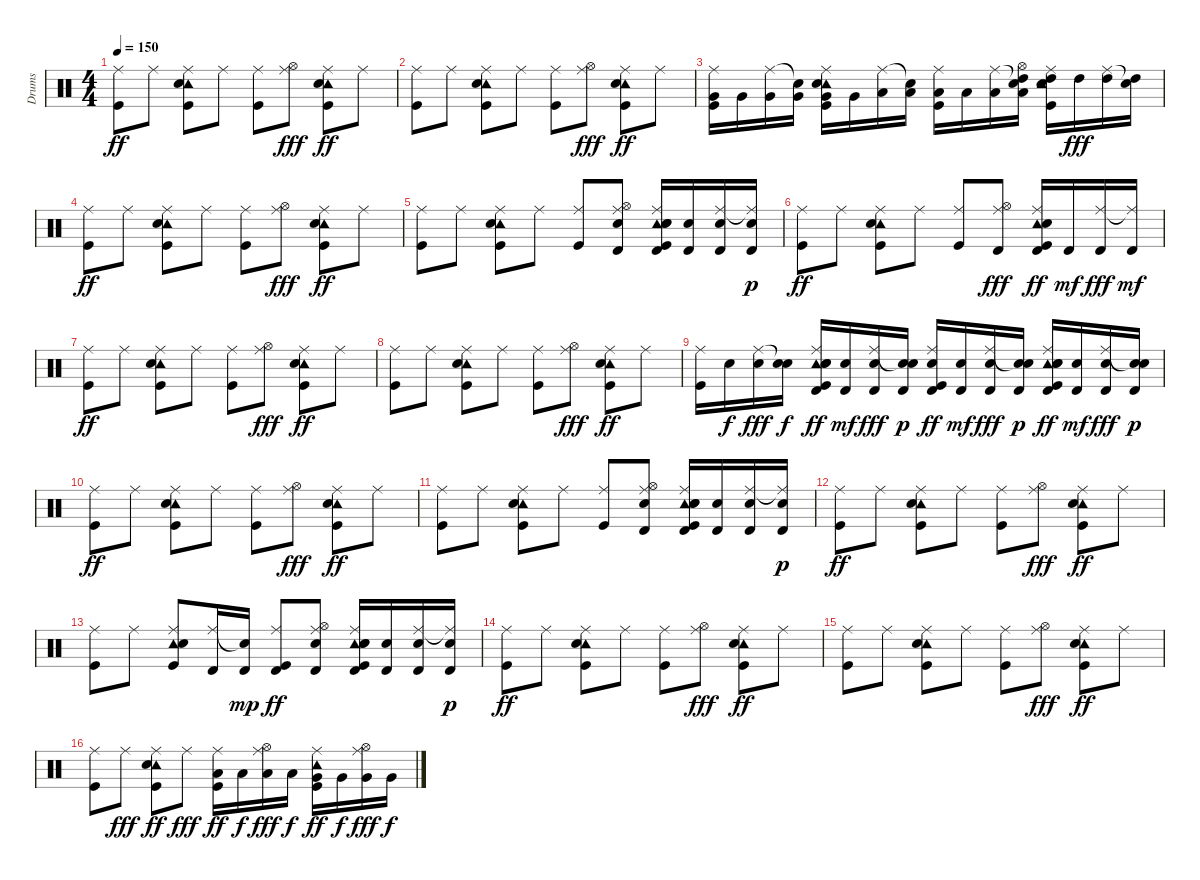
\track ("Drums" "Drums") {instrument percussion}
\staff {score}
\articulation defaults
\ts (4 4)
\tempo 150
\clef neutral
\ks c
("Ride (middle)" "Kick (hit)").8{dy ff} "Ride (middle)".8 ("Ride (middle)" "Tambourine (hit)" "Electric Snare (hit)" "Kick (hit)").8 "Ride (middle)".8 ("Ride (middle)" "Kick (hit)").8 ("Ride (middle)" "Hi-Hat (open)").8{dy fff} ("Ride (middle)" "Tambourine (hit)" "Electric Snare (hit)" "Kick (hit)").8{dy ff} "Ride (middle)".8 |
("Ride (middle)" "Kick (hit)").8 "Ride (middle)".8 ("Ride (middle)" "Tambourine (hit)" "Electric Snare (hit)" "Kick (hit)").8 "Ride (middle)".8 ("Ride (middle)" "Kick (hit)").8 ("Ride (middle)" "Hi-Hat (open)").8{dy fff} ("Ride (middle)" "Tambourine (hit)" "Electric Snare (hit)" "Kick (hit)").8{dy ff} "Ride (middle)".8 |
("Ride (middle)" "Very Low Tom (hit)" "Kick (hit)").16 "Very Low Tom (hit)".16 ("Ride (middle)" "Very Low Tom (hit)").16 ("Snare (hit)"{t} "Very Low Tom (hit)").16 ("Ride (middle)" "Tambourine (hit)" "Electric Snare (hit)" "Very Low Tom (hit)" "Kick (hit)").16 "Very Low Tom (hit)".16 ("Ride (middle)" "Low Floor Tom (hit)").16 ("Snare (hit)"{t} "Low Floor Tom (hit)").16 ("Ride (middle)" "Low Floor Tom (hit)" "Kick (hit)").16 "Low Floor Tom (hit)".16 ("Ride (middle)" "Low Floor Tom (hit)").16 ("Snare (hit)"{t} "Hi-Hat (open)" "High Tom (hit)" "Low Floor Tom (hit)").16 ("Ride (middle)" "Tambourine (hit)" "High Tom (hit)" "Snare (hit) 2" "Kick (hit)").16 "High Tom (hit)".16{dy fff} ("Ride (middle)" "High Tom (hit)").16 ("Snare (hit)"{t} "High Tom (hit)").16 |
("Ride (middle)" "Kick (hit)").8{dy ff} "Ride (middle)".8 ("Ride (middle)" "Tambourine (hit)" "Electric Snare (hit)" "Kick (hit)").8 "Ride (middle)".8 ("Ride (middle)" "Kick (hit)").8 ("Ride (middle)" "Hi-Hat (open)").8{dy fff} ("Ride (middle)" "Tambourine (hit)" "Electric Snare (hit)" "Kick (hit)").8{dy ff} "Ride (middle)".8 |
("Ride (middle)" "Kick (hit)").8 "Ride (middle)".8 ("Ride (middle)" "Tambourine (hit)" "Electric Snare (hit)" "Kick (hit)").8 "Ride (middle)".8 ("Ride (middle)" "Kick (hit)").8 ("Timbale high (hit)" "Ride (middle)" "Hi-Hat (open)" "Snare (hit) 2").8 ("Timbale high (hit)" "Ride (middle)" "Tambourine (hit)" "Electric Snare (hit)" "Snare (hit) 2" "Kick (hit)").16 ("Timbale high (hit)" "Snare (hit) 2").16 ("Timbale high (hit)" "Ride (middle)" "Snare (hit) 2").16 ("Timbale high (hit)" "Ride (middle)"{t} "Snare (hit) 2").16{dy p} |
("Ride (middle)" "Kick (hit)").8{dy ff} "Ride (middle)".8 ("Ride (middle)" "Tambourine (hit)" "Electric Snare (hit)" "Kick (hit)").8 "Ride (middle)".8 ("Ride (middle)" "Kick (hit)").8 ("Timbale high (hit)" "Ride (middle)" "Hi-Hat (open)").8{dy fff} ("Timbale high (hit)" "Ride (middle)" "Tambourine (hit)" "Electric Snare (hit)" "Kick (hit)").16{dy ff} "Timbale high (hit)".16{dy mf} ("Timbale high (hit)" "Ride (middle)").16{dy fff} ("Timbale high (hit)" "Ride (middle)"{t}).16{dy mf} |
("Ride (middle)" "Kick (hit)").8{dy ff} "Ride (middle)".8 ("Ride (middle)" "Tambourine (hit)" "Electric Snare (hit)" "Kick (hit)").8 "Ride (middle)".8 ("Ride (middle)" "Kick (hit)").8 ("Ride (middle)" "Hi-Hat (open)").8{dy fff} ("Ride (middle)" "Tambourine (hit)" "Electric Snare (hit)" "Kick (hit)").8{dy ff} "Ride (middle)".8 |
("Ride (middle)" "Kick (hit)").8 "Ride (middle)".8 ("Ride (middle)" "Tambourine (hit)" "Electric Snare (hit)" "Kick (hit)").8 "Ride (middle)".8 ("Ride (middle)" "Kick (hit)").8 ("Ride (middle)" "Hi-Hat (open)").8{dy fff} ("Ride (middle)" "Tambourine (hit)" "Electric Snare (hit)" "Kick (hit)").8{dy ff} "Ride (middle)".8 |
("Ride (middle)" "Kick (hit)").16 "Snare (hit) 2".16{dy f} ("Ride (middle)" "Snare (hit) 2").16{dy fff} ("Snare (hit)"{t} "Snare (hit) 2").16{dy f} ("Timbale high (hit)" "Ride (middle)" "Tambourine (hit)" "Electric Snare (hit)" "Snare (hit) 2" "Kick (hit)").16{dy ff} ("Timbale high (hit)" "Snare (hit) 2").16{dy mf} ("Timbale high (hit)" "Ride (middle)" "Snare (hit) 2").16{dy fff} ("Timbale high (hit)" "Snare (hit)"{t} "Snare (hit) 2").16{dy p} ("Timbale high (hit)" "Ride (middle)" "Snare (hit) 2" "Kick (hit)").16{dy ff} ("Timbale high (hit)" "Snare (hit) 2").16{dy mf} ("Timbale high (hit)" "Ride (middle)" "Snare (hit) 2").16{dy fff} ("Timbale high (hit)" "Snare (hit)"{t} "Snare (hit) 2").16{dy p} ("Timbale high (hit)" "Ride (middle)" "Tambourine (hit)" "Electric Snare (hit)" "Snare (hit) 2" "Kick (hit)").16{dy ff} ("Timbale high (hit)" "Snare (hit) 2").16{dy mf} ("Timbale high (hit)" "Ride (middle)" "Snare (hit) 2").16{dy fff} ("Timbale high (hit)" "Snare (hit)"{t} "Snare (hit) 2").16{dy p} |
("Ride (middle)" "Kick (hit)").8{dy ff} "Ride (middle)".8 ("Ride (middle)" "Tambourine (hit)" "Electric Snare (hit)" "Kick (hit)").8 "Ride (middle)".8 ("Ride (middle)" "Kick (hit)").8 ("Ride (middle)" "Hi-Hat (open)").8{dy fff} ("Ride (middle)" "Tambourine (hit)" "Electric Snare (hit)" "Kick (hit)").8{dy ff} "Ride (middle)".8 |
("Ride (middle)" "Kick (hit)").8 "Ride (middle)".8 ("Ride (middle)" "Tambourine (hit)" "Electric Snare (hit)" "Kick (hit)").8 "Ride (middle)".8 ("Ride (middle)" "Kick (hit)").8 ("Timbale high (hit)" "Ride (middle)" "Hi-Hat (open)" "Snare (hit) 2").8 ("Timbale high (hit)" "Ride (middle)" "Tambourine (hit)" "Electric Snare (hit)" "Snare (hit) 2" "Kick (hit)").16 ("Timbale high (hit)" "Snare (hit) 2").16 ("Timbale high (hit)" "Ride (middle)" "Snare (hit) 2").16 ("Timbale high (hit)" "Ride (middle)"{t} "Snare (hit) 2").16{dy p} |
("Ride (middle)" "Kick (hit)").8{dy ff} "Ride (middle)".8 ("Ride (middle)" "Tambourine (hit)" "Electric Snare (hit)" "Kick (hit)").8 "Ride (middle)".8 ("Ride (middle)" "Kick (hit)").8 ("Ride (middle)" "Hi-Hat (open)").8{dy fff} ("Ride (middle)" "Tambourine (hit)" "Electric Snare (hit)" "Kick (hit)").8{dy ff} "Ride (middle)".8 |
("Ride (middle)" "Kick (hit)").8 "Ride (middle)".8 ("Ride (middle)" "Tambourine (hit)" "Electric Snare (hit)" "Kick (hit)").8 ("Timbale high (hit)" "Ride (middle)").16 ("Timbale high (hit)" "Snare (hit)"{t}).16{dy mp} ("Timbale high (hit)" "Ride (middle)" "Kick (hit)").8{dy ff} ("Timbale high (hit)" "Ride (middle)" "Hi-Hat (open)" "Snare (hit) 2").8 ("Timbale high (hit)" "Ride (middle)" "Tambourine (hit)" "Electric Snare (hit)" "Snare (hit) 2" "Kick (hit)").16 ("Timbale high (hit)" "Snare (hit) 2").16 ("Timbale high (hit)" "Ride (middle)" "Snare (hit) 2").16 ("Timbale high (hit)" "Ride (middle)"{t} "Snare (hit) 2").16{dy p} |
("Ride (middle)" "Kick (hit)").8{dy ff} "Ride (middle)".8 ("Ride (middle)" "Tambourine (hit)" "Electric Snare (hit)" "Kick (hit)").8 "Ride (middle)".8 ("Ride (middle)" "Kick (hit)").8 ("Ride (middle)" "Hi-Hat (open)").8{dy fff} ("Ride (middle)" "Tambourine (hit)" "Electric Snare (hit)" "Kick (hit)").8{dy ff} "Ride (middle)".8 |
("Ride (middle)" "Kick (hit)").8 "Ride (middle)".8 ("Ride (middle)" "Tambourine (hit)" "Electric Snare (hit)" "Kick (hit)").8 "Ride (middle)".8 ("Ride (middle)" "Kick (hit)").8 ("Ride (middle)" "Hi-Hat (open)").8{dy fff} ("Ride (middle)" "Tambourine (hit)" "Electric Snare (hit)" "Kick (hit)").8{dy ff} "Ride (middle)".8 |
("Ride (middle)" "Kick (hit)").8 "Ride (middle)".8{dy fff} ("Ride (middle)" "Tambourine (hit)" "Electric Snare (hit)" "Kick (hit)").8{dy ff} "Ride (middle)".8{dy fff} ("Ride (middle)" "Low Floor Tom (hit)" "Kick (hit)").16{dy ff} "Low Floor Tom (hit)".16{dy f} ("Ride (middle)" "Hi-Hat (open)" "Low Floor Tom (hit)").16{dy fff} "Low Floor Tom (hit)".16{dy f} ("Ride (middle)" "Tambourine (hit)" "Very Low Tom (hit)" "Kick (hit)").16{dy ff} "Very Low Tom (hit)".16{dy f} ("Ride (middle)" "Hi-Hat (open)" "Very Low Tom (hit)").16{dy fff} "Very Low Tom (hit)".16{dy f}
